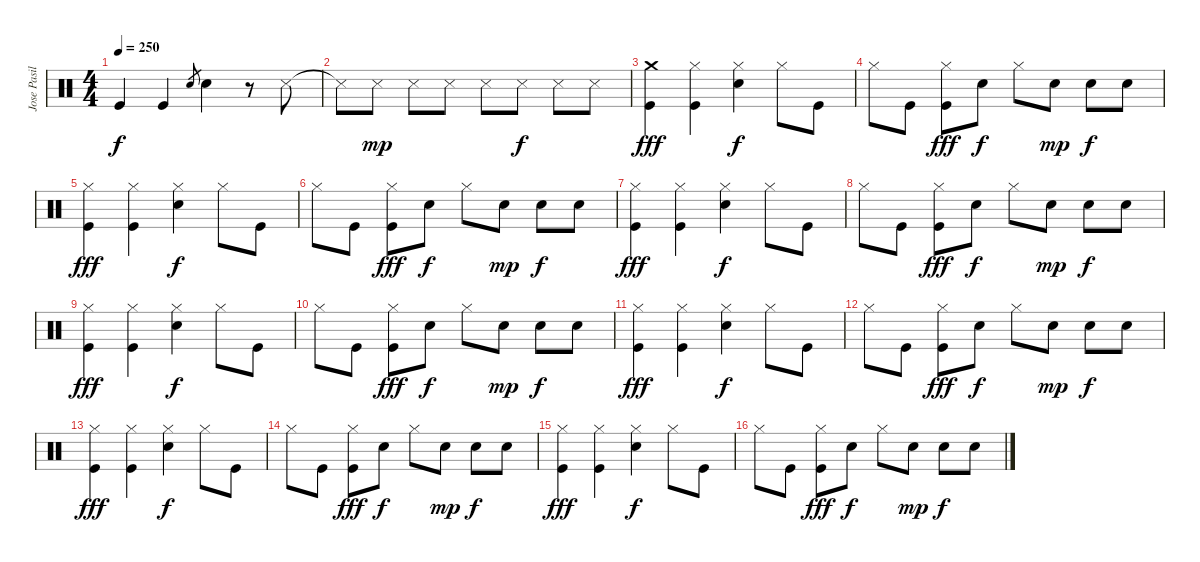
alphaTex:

\track ("Jose Pasillas II" "Jose Pasil") {instrument percussion}
\staff {score}
\articulation defaults
\ts (4 4)
\tempo 250
\clef neutral
\ks c "Kick (hit)".4{dy f} "Kick (hit)".4 "Electric Snare (hit)".8{gr} "Electric Snare (hit)".4
r.8 "Metronome (hit)".8 |
"Metronome (hit)"{t}.8 "Metronome (hit)".8{dy mp} "Metronome (hit)".8 "Metronome (hit)".8 "Metronome (hit)".8 "Metronome (hit)".8{dy f} "Metronome (hit)".8 "Metronome (hit)".8 |
("Crash medium (hit)" "Kick (hit)").4{dy fff} ("Hi-Hat (closed)" "Kick (hit)").4 ("Hi-Hat (closed)" "Electric Snare (hit)").4{dy f} "Hi-Hat (closed)".8 "Kick (hit)".8 |
"Hi-Hat (closed)".8 "Kick (hit)".8 ("Hi-Hat (closed)" "Kick (hit)").8{dy fff} "Electric Snare (hit)".8{dy f} "Hi-Hat (closed)".8 "Electric Snare (hit)".8{dy mp} "Electric Snare (hit)".8{dy f} "Electric Snare (hit)".8 |
("Hi-Hat (closed)" "Kick (hit)").4{dy fff} ("Hi-Hat (closed)" "Kick (hit)").4 ("Hi-Hat (closed)" "Electric Snare (hit)").4{dy f} "Hi-Hat (closed)".8 "Kick (hit)".8 |
"Hi-Hat (closed)".8 "Kick (hit)".8 ("Hi-Hat (closed)" "Kick (hit)").8{dy fff} "Electric Snare (hit)".8{dy f} "Hi-Hat (closed)".8 "Electric Snare (hit)".8{dy mp} "Electric Snare (hit)".8{dy f} "Electric Snare (hit)".8 |
("Hi-Hat (closed)" "Kick (hit)").4{dy fff} ("Hi-Hat (closed)" "Kick (hit)").4 ("Hi-Hat (closed)" "Electric Snare (hit)").4{dy f} "Hi-Hat (closed)".8 "Kick (hit)".8 |
"Hi-Hat (closed)".8 "Kick (hit)".8 ("Hi-Hat (closed)" "Kick (hit)").8{dy fff} "Electric Snare (hit)".8{dy f} "Hi-Hat (closed)".8 "Electric Snare (hit)".8{dy mp} "Electric Snare (hit)".8{dy f} "Electric Snare (hit)".8 |
("Hi-Hat (closed)" "Kick (hit)").4{dy fff} ("Hi-Hat (closed)" "Kick (hit)").4 ("Hi-Hat (closed)" "Electric Snare (hit)").4{dy f} "Hi-Hat (closed)".8 "Kick (hit)".8 |
"Hi-Hat (closed)".8 "Kick (hit)".8 ("Hi-Hat (closed)" "Kick (hit)").8{dy fff} "Electric Snare (hit)".8{dy f} "Hi-Hat (closed)".8 "Electric Snare (hit)".8{dy mp} "Electric Snare (hit)".8{dy f} "Electric Snare (hit)".8 |
("Hi-Hat (closed)" "Kick (hit)").4{dy fff} ("Hi-Hat (closed)" "Kick (hit)").4 ("Hi-Hat (closed)" "Electric Snare (hit)").4{dy f} "Hi-Hat (closed)".8 "Kick (hit)".8 |
"Hi-Hat (closed)".8 "Kick (hit)".8 ("Hi-Hat (closed)" "Kick (hit)").8{dy fff} "Electric Snare (hit)".8{dy f} "Hi-Hat (closed)".8 "Electric Snare (hit)".8{dy mp} "Electric Snare (hit)".8{dy f} "Electric Snare (hit)".8 |
("Hi-Hat (closed)" "Kick (hit)").4{dy fff} ("Hi-Hat (closed)" "Kick (hit)").4 ("Hi-Hat (closed)" "Electric Snare (hit)").4{dy f} "Hi-Hat (closed)".8 "Kick (hit)".8 |
"Hi-Hat (closed)".8 "Kick (hit)".8 ("Hi-Hat (closed)" "Kick (hit)").8{dy fff} "Electric Snare (hit)".8{dy f} "Hi-Hat (closed)".8 "Electric Snare (hit)".8{dy mp} "Electric Snare (hit)".8{dy f} "Electric Snare (hit)".8 |
("Hi-Hat (closed)" "Kick (hit)").4{dy fff} ("Hi-Hat (closed)" "Kick (hit)").4 ("Hi-Hat (closed)" "Electric Snare (hit)").4{dy f} "Hi-Hat (closed)".8 "Kick (hit)".8 |
"Hi-Hat (closed)".8 "Kick (hit)".8 ("Hi-Hat (closed)" "Kick (hit)").8{dy fff} "Electric Snare (hit)".8{dy f} "Hi-Hat (closed)".8 "Electric Snare (hit)".8{dy mp} "Electric Snare (hit)".8{dy f} "Electric Snare (hit)".8
